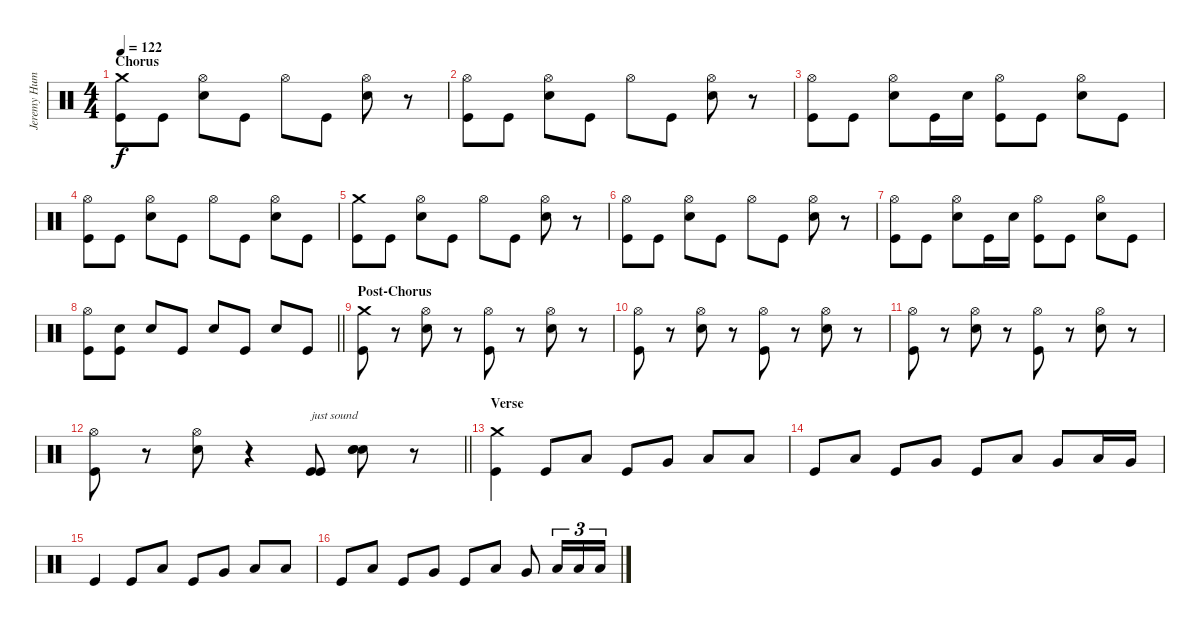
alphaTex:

\track ("Jeremy Hummel Drums]" "Jeremy Hum") {instrument percussion}
\staff {score}
\articulation defaults
\ts (4 4)
\section ("" "Chorus")
\tempo 122
\clef neutral
\ks c
("Crash medium (hit)" "Kick (hit)").8{dy f} "Kick (hit)".8 ("Hi-Hat (open)" "Electric Snare (hit)").8 "Kick (hit)".8 "Hi-Hat (open)".8 "Kick (hit)".8 ("Hi-Hat (open)" "Electric Snare (hit)").8 r.8 |
("Hi-Hat (open)" "Kick (hit)").8 "Kick (hit)".8 ("Hi-Hat (open)" "Electric Snare (hit)").8 "Kick (hit)".8 "Hi-Hat (open)".8 "Kick (hit)".8 ("Hi-Hat (open)" "Electric Snare (hit)").8 r.8 |
("Hi-Hat (open)" "Kick (hit)").8 "Kick (hit)".8 ("Hi-Hat (open)" "Electric Snare (hit)").8 "Kick (hit)".16 "Electric Snare (hit)".16 ("Hi-Hat (open)" "Kick (hit)").8 "Kick (hit)".8 ("Hi-Hat (open)" "Electric Snare (hit)").8 "Kick (hit)".8 |
("Hi-Hat (open)" "Kick (hit)").8 "Kick (hit)".8 ("Hi-Hat (open)" "Electric Snare (hit)").8 "Kick (hit)".8 "Hi-Hat (open)".8 "Kick (hit)".8 ("Hi-Hat (open)" "Electric Snare (hit)").8 "Kick (hit)".8 |
("Crash medium (hit)" "Kick (hit)").8 "Kick (hit)".8 ("Hi-Hat (open)" "Electric Snare (hit)").8 "Kick (hit)".8 "Hi-Hat (open)".8 "Kick (hit)".8 ("Hi-Hat (open)" "Electric Snare (hit)").8 r.8 |
("Hi-Hat (open)" "Kick (hit)").8 "Kick (hit)".8 ("Hi-Hat (open)" "Electric Snare (hit)").8 "Kick (hit)".8 "Hi-Hat (open)".8 "Kick (hit)".8 ("Hi-Hat (open)" "Electric Snare (hit)").8 r.8 |
("Hi-Hat (open)" "Kick (hit)").8 "Kick (hit)".8 ("Hi-Hat (open)" "Electric Snare (hit)").8 "Kick (hit)".16 "Electric Snare (hit)".16 ("Hi-Hat (open)" "Kick (hit)").8 "Kick (hit)".8 ("Hi-Hat (open)" "Electric Snare (hit)").8 "Kick (hit)".8 |
\barLineRight lightlight
("Hi-Hat (open)" "Kick (hit)").8 ("Electric Snare (hit)" "Kick (hit)").8 "Electric Snare (hit)".8 "Kick (hit)".8 "Electric Snare (hit)".8 "Kick (hit)".8 "Electric Snare (hit)".8 "Kick (hit)".8 |
\section ("" "Post-Chorus")
("Crash medium (hit)" "Kick (hit)").8 r.8 ("Hi-Hat (open)" "Electric Snare (hit)").8 r.8 ("Hi-Hat (open)" "Kick (hit)").8 r.8 ("Hi-Hat (open)" "Electric Snare (hit)").8 r.8 |
("Hi-Hat (open)" "Kick (hit)").8 r.8 ("Hi-Hat (open)" "Electric Snare (hit)").8 r.8 ("Hi-Hat (open)" "Kick (hit)").8 r.8 ("Hi-Hat (open)" "Electric Snare (hit)").8 r.8 |
("Hi-Hat (open)" "Kick (hit)").8 r.8 ("Hi-Hat (open)" "Electric Snare (hit)").8 r.8 ("Hi-Hat (open)" "Kick (hit)").8 r.8 ("Hi-Hat (open)" "Electric Snare (hit)").8 r.8 |
\barLineRight lightlight
("Hi-Hat (open)" "Kick (hit)").8 r.8 ("Hi-Hat (open)" "Electric Snare (hit)").8 r.4 ("Kick (hit)" "Kick (hit)").8{txt "just sound"} ("Electric Snare (hit)" "Electric Snare (hit)" "Electric Snare (hit)").8 r.8 |
\section ("" "Verse")
("Crash medium (hit)" "Kick (hit)").4 "Kick (hit)".8 "Low Tom (hit)".8 "Kick (hit)".8 "Very Low Tom (hit)".8 "Low Floor Tom (hit)".8 "Low Tom (hit)".8 |
"Kick (hit)".8 "Low Tom (hit)".8 "Kick (hit)".8 "Very Low Tom (hit)".8 "Kick (hit)".8 "Low Floor Tom (hit)".8 "Very Low Tom (hit)".8 "Low Tom (hit)".16 "Very Low Tom (hit)".16 |
"Kick (hit)".4 "Kick (hit)".8 "Low Tom (hit)".8 "Kick (hit)".8 "Very Low Tom (hit)".8 "Low Floor Tom (hit)".8 "Low Tom (hit)".8 |
"Kick (hit)".8 "Low Tom (hit)".8 "Kick (hit)".8 "Very Low Tom (hit)".8 "Kick (hit)".8 "Low Floor Tom (hit)".8 "Very Low Tom (hit)".8 "Low Tom (hit)".16{tu (3 2)} "Low Tom (hit)".16{tu (3 2)} "Low Tom (hit)".16{tu (3 2)}
